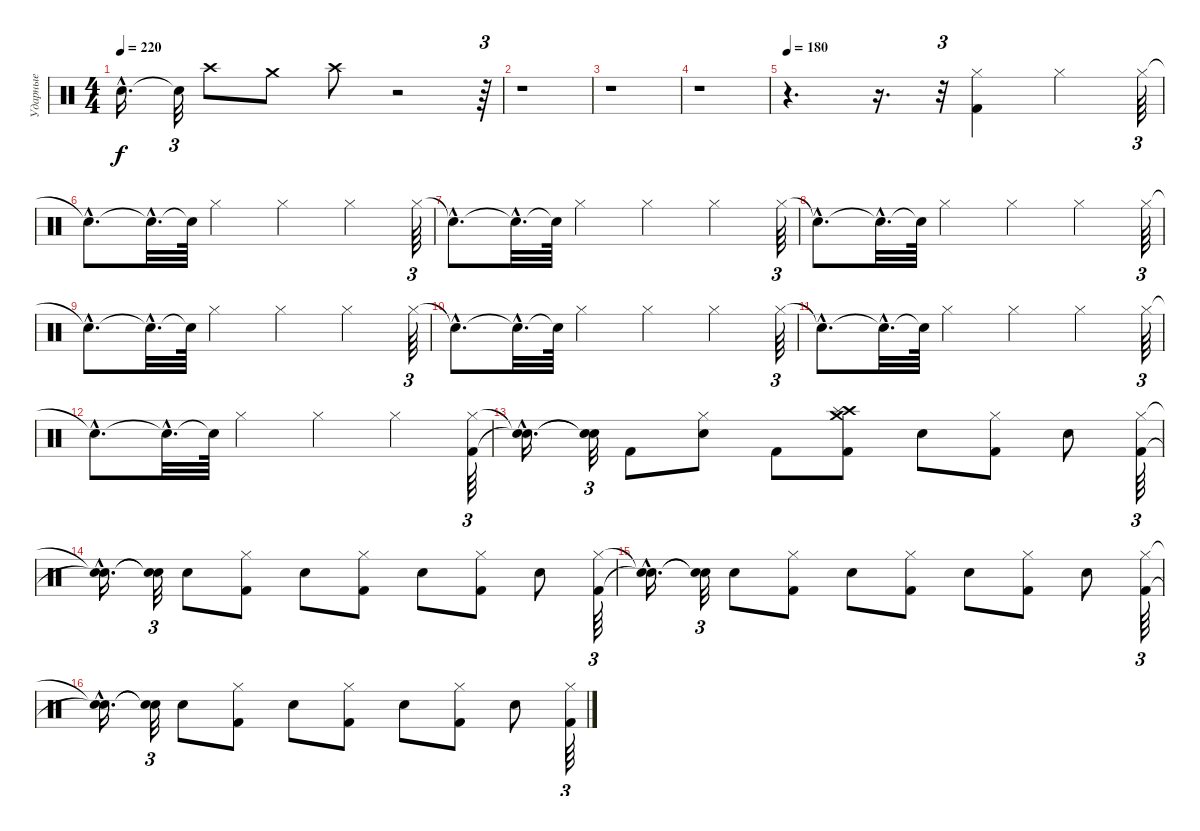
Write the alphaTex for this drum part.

\track ("Ударные" "Ударные") {instrument percussion}
\staff {score}
\articulation defaults
\ts (4 4)
\tempo 220
\clef neutral
\ks c "Snare (hit)"{hac t}.16{d dy f} "Snare (hit)"{t}.32{tu (3 2)} "Crash high (hit)".8 "Crash medium (hit)".8 "Crash high (hit)".8
r.2 r.64{tu (3 2)} |
r.1 |
r.1 |
r.1 |
\tempo 180
r.4{d} r.16{d} r.32{tu (3 2)} ("Hi-Hat (closed)" "Kick (hit) 2").4 "Hi-Hat (closed)".4 "Hi-Hat (closed)".64{tu (3 2)} |
"Snare (hit)"{hac t}.8{d} "Snare (hit)"{hac t}.32{d} "Snare (hit)"{t}.64 "Hi-Hat (closed)".4 "Hi-Hat (closed)".4 "Hi-Hat (closed)".4 "Hi-Hat (closed)".64{tu (3 2)} |
"Snare (hit)"{hac t}.8{d} "Snare (hit)"{hac t}.32{d} "Snare (hit)"{t}.64 "Hi-Hat (closed)".4 "Hi-Hat (closed)".4 "Hi-Hat (closed)".4 "Hi-Hat (closed)".64{tu (3 2)} |
"Snare (hit)"{hac t}.8{d} "Snare (hit)"{hac t}.32{d} "Snare (hit)"{t}.64 "Hi-Hat (closed)".4 "Hi-Hat (closed)".4 "Hi-Hat (closed)".4 "Hi-Hat (closed)".64{tu (3 2)} |
"Snare (hit)"{hac t}.8{d} "Snare (hit)"{hac t}.32{d} "Snare (hit)"{t}.64 "Hi-Hat (closed)".4 "Hi-Hat (closed)".4 "Hi-Hat (closed)".4 "Hi-Hat (closed)".64{tu (3 2)} |
"Snare (hit)"{hac t}.8{d} "Snare (hit)"{hac t}.32{d} "Snare (hit)"{t}.64 "Hi-Hat (closed)".4 "Hi-Hat (closed)".4 "Hi-Hat (closed)".4 "Hi-Hat (closed)".64{tu (3 2)} |
"Snare (hit)"{hac t}.8{d} "Snare (hit)"{hac t}.32{d} "Snare (hit)"{t}.64 "Hi-Hat (closed)".4 "Hi-Hat (closed)".4 "Hi-Hat (closed)".4 "Hi-Hat (closed)".64{tu (3 2)} |
"Snare (hit)"{hac t}.8{d} "Snare (hit)"{hac t}.32{d} "Snare (hit)"{t}.64 "Hi-Hat (closed)".4 "Hi-Hat (closed)".4 "Hi-Hat (closed)".4 ("Hi-Hat (closed)" "Kick (hit) 2").64{tu (3 2)} |
("Snare (hit)"{hac t} "Snare (hit)"{hac t}).16{d} ("Snare (hit)"{t} "Snare (hit)"{t}).32{tu (3 2)} "Kick (hit) 2".8 ("Hi-Hat (closed)" "Snare (hit) 2").8 "Kick (hit) 2".8 ("Crash high (hit)" "Crash medium (hit)" "Splash (hit)" "Kick (hit) 2").8 "Snare (hit) 2".8 ("Hi-Hat (closed)" "Kick (hit) 2").8 "Snare (hit) 2".8 ("Hi-Hat (closed)" "Kick (hit) 2").64{tu (3 2)} |
("Snare (hit)"{hac t} "Snare (hit)"{hac t}).16{d} ("Snare (hit)"{t} "Snare (hit)"{t}).32{tu (3 2)} "Snare (hit) 2".8 ("Hi-Hat (closed)" "Kick (hit) 2").8 "Snare (hit) 2".8 ("Hi-Hat (closed)" "Kick (hit) 2").8 "Snare (hit) 2".8 ("Hi-Hat (closed)" "Kick (hit) 2").8 "Snare (hit) 2".8 ("Hi-Hat (closed)" "Kick (hit) 2").64{tu (3 2)} |
("Snare (hit)"{hac t} "Snare (hit)"{hac t}).16{d} ("Snare (hit)"{t} "Snare (hit)"{t}).32{tu (3 2)} "Snare (hit) 2".8 ("Hi-Hat (closed)" "Kick (hit) 2").8 "Snare (hit) 2".8 ("Hi-Hat (closed)" "Kick (hit) 2").8 "Snare (hit) 2".8 ("Hi-Hat (closed)" "Kick (hit) 2").8 "Snare (hit) 2".8 ("Hi-Hat (closed)" "Kick (hit) 2").64{tu (3 2)} |
("Snare (hit)"{hac t} "Snare (hit)"{hac t}).16{d} ("Snare (hit)"{t} "Snare (hit)"{t}).32{tu (3 2)} "Snare (hit) 2".8 ("Hi-Hat (closed)" "Kick (hit) 2").8 "Snare (hit) 2".8 ("Hi-Hat (closed)" "Kick (hit) 2").8 "Snare (hit) 2".8 ("Hi-Hat (closed)" "Kick (hit) 2").8 "Snare (hit) 2".8 ("Hi-Hat (closed)" "Kick (hit) 2").64{tu (3 2)}
